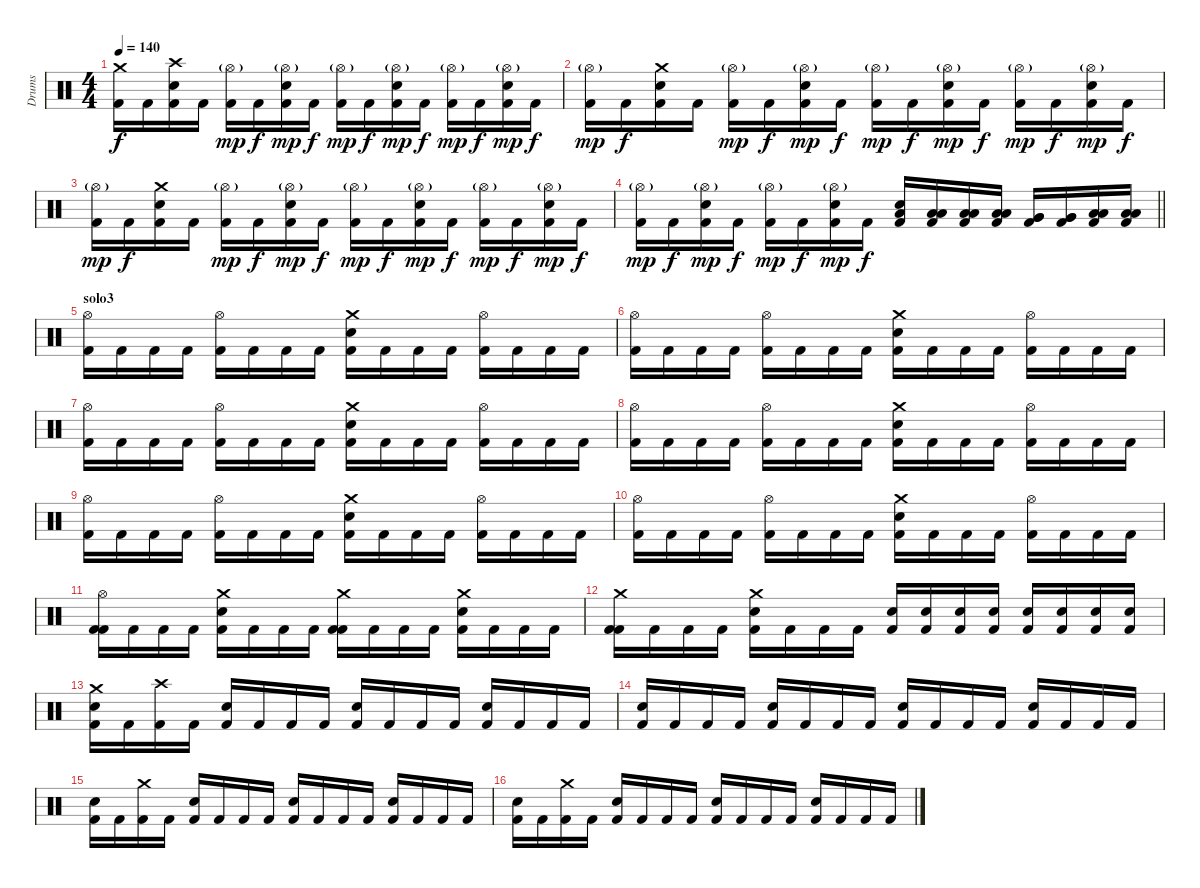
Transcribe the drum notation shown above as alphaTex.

\track ("Drums" "Drums") {instrument percussion}
\staff {score}
\articulation defaults
\ts (4 4)
\tempo 140
\clef neutral
\ks c
("Crash medium (hit)" "Kick (hit) 2").16{dy f} "Kick (hit) 2".16 ("Crash high (hit)" "Electric Snare (hit)" "Kick (hit) 2").16 "Kick (hit) 2".16 ("Hi-Hat (open)"{g} "Kick (hit) 2").16{dy mp} "Kick (hit) 2".16{dy f} ("Hi-Hat (open)"{g} "Electric Snare (hit)" "Kick (hit) 2").16{dy mp} "Kick (hit) 2".16{dy f} ("Hi-Hat (open)"{g} "Kick (hit) 2").16{dy mp} "Kick (hit) 2".16{dy f} ("Hi-Hat (open)"{g} "Electric Snare (hit)" "Kick (hit) 2").16{dy mp} "Kick (hit) 2".16{dy f} ("Hi-Hat (open)"{g} "Kick (hit) 2").16{dy mp} "Kick (hit) 2".16{dy f} ("Hi-Hat (open)"{g} "Electric Snare (hit)" "Kick (hit) 2").16{dy mp} "Kick (hit) 2".16{dy f} |
("Hi-Hat (open)"{g} "Kick (hit) 2").16{dy mp} "Kick (hit) 2".16{dy f} ("Crash medium (hit)" "Electric Snare (hit)" "Kick (hit) 2").16 "Kick (hit) 2".16 ("Hi-Hat (open)"{g} "Kick (hit) 2").16{dy mp} "Kick (hit) 2".16{dy f} ("Hi-Hat (open)"{g} "Electric Snare (hit)" "Kick (hit) 2").16{dy mp} "Kick (hit) 2".16{dy f} ("Hi-Hat (open)"{g} "Kick (hit) 2").16{dy mp} "Kick (hit) 2".16{dy f} ("Hi-Hat (open)"{g} "Electric Snare (hit)" "Kick (hit) 2").16{dy mp} "Kick (hit) 2".16{dy f} ("Hi-Hat (open)"{g} "Kick (hit) 2").16{dy mp} "Kick (hit) 2".16{dy f} ("Hi-Hat (open)"{g} "Electric Snare (hit)" "Kick (hit) 2").16{dy mp} "Kick (hit) 2".16{dy f} |
("Hi-Hat (open)"{g} "Kick (hit) 2").16{dy mp} "Kick (hit) 2".16{dy f} ("Crash medium (hit)" "Electric Snare (hit)" "Kick (hit) 2").16 "Kick (hit) 2".16 ("Hi-Hat (open)"{g} "Kick (hit) 2").16{dy mp} "Kick (hit) 2".16{dy f} ("Hi-Hat (open)"{g} "Electric Snare (hit)" "Kick (hit) 2").16{dy mp} "Kick (hit) 2".16{dy f} ("Hi-Hat (open)"{g} "Kick (hit) 2").16{dy mp} "Kick (hit) 2".16{dy f} ("Hi-Hat (open)"{g} "Electric Snare (hit)" "Kick (hit) 2").16{dy mp} "Kick (hit) 2".16{dy f} ("Hi-Hat (open)"{g} "Kick (hit) 2").16{dy mp} "Kick (hit) 2".16{dy f} ("Hi-Hat (open)"{g} "Electric Snare (hit)" "Kick (hit) 2").16{dy mp} "Kick (hit) 2".16{dy f} |
\barLineRight lightlight
("Hi-Hat (open)"{g} "Kick (hit) 2").16{dy mp} "Kick (hit) 2".16{dy f} ("Hi-Hat (open)"{g} "Electric Snare (hit)" "Kick (hit) 2").16{dy mp} "Kick (hit) 2".16{dy f} ("Hi-Hat (open)"{g} "Kick (hit) 2").16{dy mp} "Kick (hit) 2".16{dy f} ("Hi-Hat (open)"{g} "Electric Snare (hit)" "Kick (hit) 2").16{dy mp} "Kick (hit) 2".16{dy f} ("Electric Snare (hit)" "Kick (hit) 2" "Low Tom (hit)").16 ("Low Tom (hit)" "Kick (hit) 2" "Low Tom (hit)").16 ("Low Tom (hit)" "Kick (hit) 2" "Low Tom (hit)").16 ("Low Tom (hit)" "Kick (hit) 2" "Low Tom (hit)").16 ("Very Low Tom (hit)" "Kick (hit) 2" "Very Low Tom (hit)").16 ("Very Low Tom (hit)" "Kick (hit) 2" "Very Low Tom (hit)").16 ("Low Floor Tom (hit)" "Kick (hit) 2" "Low Floor Tom (hit)").16 ("Low Floor Tom (hit)" "Kick (hit) 2" "Low Floor Tom (hit)").16 |
\section ("" "solo3")
("Hi-Hat (open)" "Kick (hit) 2").16 "Kick (hit) 2".16 "Kick (hit) 2".16 "Kick (hit) 2".16 ("Hi-Hat (open)" "Kick (hit) 2").16 "Kick (hit) 2".16 "Kick (hit) 2".16 "Kick (hit) 2".16 ("Crash medium (hit)" "Electric Snare (hit)" "Kick (hit) 2").16 "Kick (hit) 2".16 "Kick (hit) 2".16 "Kick (hit) 2".16 ("Hi-Hat (open)" "Kick (hit) 2").16 "Kick (hit) 2".16 "Kick (hit) 2".16 "Kick (hit) 2".16 |
("Hi-Hat (open)" "Kick (hit) 2").16 "Kick (hit) 2".16 "Kick (hit) 2".16 "Kick (hit) 2".16 ("Hi-Hat (open)" "Kick (hit) 2").16 "Kick (hit) 2".16 "Kick (hit) 2".16 "Kick (hit) 2".16 ("Crash medium (hit)" "Electric Snare (hit)" "Kick (hit) 2").16 "Kick (hit) 2".16 "Kick (hit) 2".16 "Kick (hit) 2".16 ("Hi-Hat (open)" "Kick (hit) 2").16 "Kick (hit) 2".16 "Kick (hit) 2".16 "Kick (hit) 2".16 |
("Hi-Hat (open)" "Kick (hit) 2").16 "Kick (hit) 2".16 "Kick (hit) 2".16 "Kick (hit) 2".16 ("Hi-Hat (open)" "Kick (hit) 2").16 "Kick (hit) 2".16 "Kick (hit) 2".16 "Kick (hit) 2".16 ("Crash medium (hit)" "Electric Snare (hit)" "Kick (hit) 2").16 "Kick (hit) 2".16 "Kick (hit) 2".16 "Kick (hit) 2".16 ("Hi-Hat (open)" "Kick (hit) 2").16 "Kick (hit) 2".16 "Kick (hit) 2".16 "Kick (hit) 2".16 |
("Hi-Hat (open)" "Kick (hit) 2").16 "Kick (hit) 2".16 "Kick (hit) 2".16 "Kick (hit) 2".16 ("Hi-Hat (open)" "Kick (hit) 2").16 "Kick (hit) 2".16 "Kick (hit) 2".16 "Kick (hit) 2".16 ("Crash medium (hit)" "Electric Snare (hit)" "Kick (hit) 2").16 "Kick (hit) 2".16 "Kick (hit) 2".16 "Kick (hit) 2".16 ("Hi-Hat (open)" "Kick (hit) 2").16 "Kick (hit) 2".16 "Kick (hit) 2".16 "Kick (hit) 2".16 |
("Hi-Hat (open)" "Kick (hit) 2").16 "Kick (hit) 2".16 "Kick (hit) 2".16 "Kick (hit) 2".16 ("Hi-Hat (open)" "Kick (hit) 2").16 "Kick (hit) 2".16 "Kick (hit) 2".16 "Kick (hit) 2".16 ("Crash medium (hit)" "Electric Snare (hit)" "Kick (hit) 2").16 "Kick (hit) 2".16 "Kick (hit) 2".16 "Kick (hit) 2".16 ("Hi-Hat (open)" "Kick (hit) 2").16 "Kick (hit) 2".16 "Kick (hit) 2".16 "Kick (hit) 2".16 |
("Hi-Hat (open)" "Kick (hit) 2").16 "Kick (hit) 2".16 "Kick (hit) 2".16 "Kick (hit) 2".16 ("Hi-Hat (open)" "Kick (hit) 2").16 "Kick (hit) 2".16 "Kick (hit) 2".16 "Kick (hit) 2".16 ("Crash medium (hit)" "Electric Snare (hit)" "Kick (hit) 2").16 "Kick (hit) 2".16 "Kick (hit) 2".16 "Kick (hit) 2".16 ("Hi-Hat (open)" "Kick (hit) 2").16 "Kick (hit) 2".16 "Kick (hit) 2".16 "Kick (hit) 2".16 |
("Hi-Hat (open)" "Kick (hit) 2" "Kick (hit) 2").16 "Kick (hit) 2".16 "Kick (hit) 2".16 "Kick (hit) 2".16 ("Crash medium (hit)" "Electric Snare (hit)" "Kick (hit) 2").16 "Kick (hit) 2".16 "Kick (hit) 2".16 "Kick (hit) 2".16 ("Crash medium (hit)" "Kick (hit) 2" "Kick (hit) 2").16 "Kick (hit) 2".16 "Kick (hit) 2".16 "Kick (hit) 2".16 ("Crash medium (hit)" "Electric Snare (hit)" "Kick (hit) 2").16 "Kick (hit) 2".16 "Kick (hit) 2".16 "Kick (hit) 2".16 |
("Crash medium (hit)" "Kick (hit) 2" "Kick (hit) 2").16 "Kick (hit) 2".16 "Kick (hit) 2".16 "Kick (hit) 2".16 ("Crash medium (hit)" "Electric Snare (hit)" "Kick (hit) 2").16 "Kick (hit) 2".16 "Kick (hit) 2".16 "Kick (hit) 2".16 ("Electric Snare (hit)" "Kick (hit) 2").16 ("Electric Snare (hit)" "Kick (hit) 2").16 ("Electric Snare (hit)" "Kick (hit) 2").16 ("Electric Snare (hit)" "Kick (hit) 2").16 ("Electric Snare (hit)" "Kick (hit) 2").16 ("Electric Snare (hit)" "Kick (hit) 2").16 ("Electric Snare (hit)" "Kick (hit) 2").16 ("Electric Snare (hit)" "Kick (hit) 2").16 |
("Crash medium (hit)" "Electric Snare (hit)" "Kick (hit) 2").16 "Kick (hit) 2".16 ("Crash high (hit)" "Kick (hit) 2").16 "Kick (hit) 2".16 ("Electric Snare (hit)" "Kick (hit) 2").16 "Kick (hit) 2".16 "Kick (hit) 2".16 "Kick (hit) 2".16 ("Electric Snare (hit)" "Kick (hit) 2").16 "Kick (hit) 2".16 "Kick (hit) 2".16 "Kick (hit) 2".16 ("Electric Snare (hit)" "Kick (hit) 2").16 "Kick (hit) 2".16 "Kick (hit) 2".16 "Kick (hit) 2".16 |
("Electric Snare (hit)" "Kick (hit) 2").16 "Kick (hit) 2".16 "Kick (hit) 2".16 "Kick (hit) 2".16 ("Electric Snare (hit)" "Kick (hit) 2").16 "Kick (hit) 2".16 "Kick (hit) 2".16 "Kick (hit) 2".16 ("Electric Snare (hit)" "Kick (hit) 2").16 "Kick (hit) 2".16 "Kick (hit) 2".16 "Kick (hit) 2".16 ("Electric Snare (hit)" "Kick (hit) 2").16 "Kick (hit) 2".16 "Kick (hit) 2".16 "Kick (hit) 2".16 |
("Electric Snare (hit)" "Kick (hit) 2").16 "Kick (hit) 2".16 ("Crash medium (hit)" "Kick (hit) 2").16 "Kick (hit) 2".16 ("Electric Snare (hit)" "Kick (hit) 2").16 "Kick (hit) 2".16 "Kick (hit) 2".16 "Kick (hit) 2".16 ("Electric Snare (hit)" "Kick (hit) 2").16 "Kick (hit) 2".16 "Kick (hit) 2".16 "Kick (hit) 2".16 ("Electric Snare (hit)" "Kick (hit) 2").16 "Kick (hit) 2".16 "Kick (hit) 2".16 "Kick (hit) 2".16 |
("Electric Snare (hit)" "Kick (hit) 2").16 "Kick (hit) 2".16 ("Crash medium (hit)" "Kick (hit) 2").16 "Kick (hit) 2".16 ("Electric Snare (hit)" "Kick (hit) 2").16 "Kick (hit) 2".16 "Kick (hit) 2".16 "Kick (hit) 2".16 ("Electric Snare (hit)" "Kick (hit) 2").16 "Kick (hit) 2".16 "Kick (hit) 2".16 "Kick (hit) 2".16 ("Electric Snare (hit)" "Kick (hit) 2").16 "Kick (hit) 2".16 "Kick (hit) 2".16 "Kick (hit) 2".16
